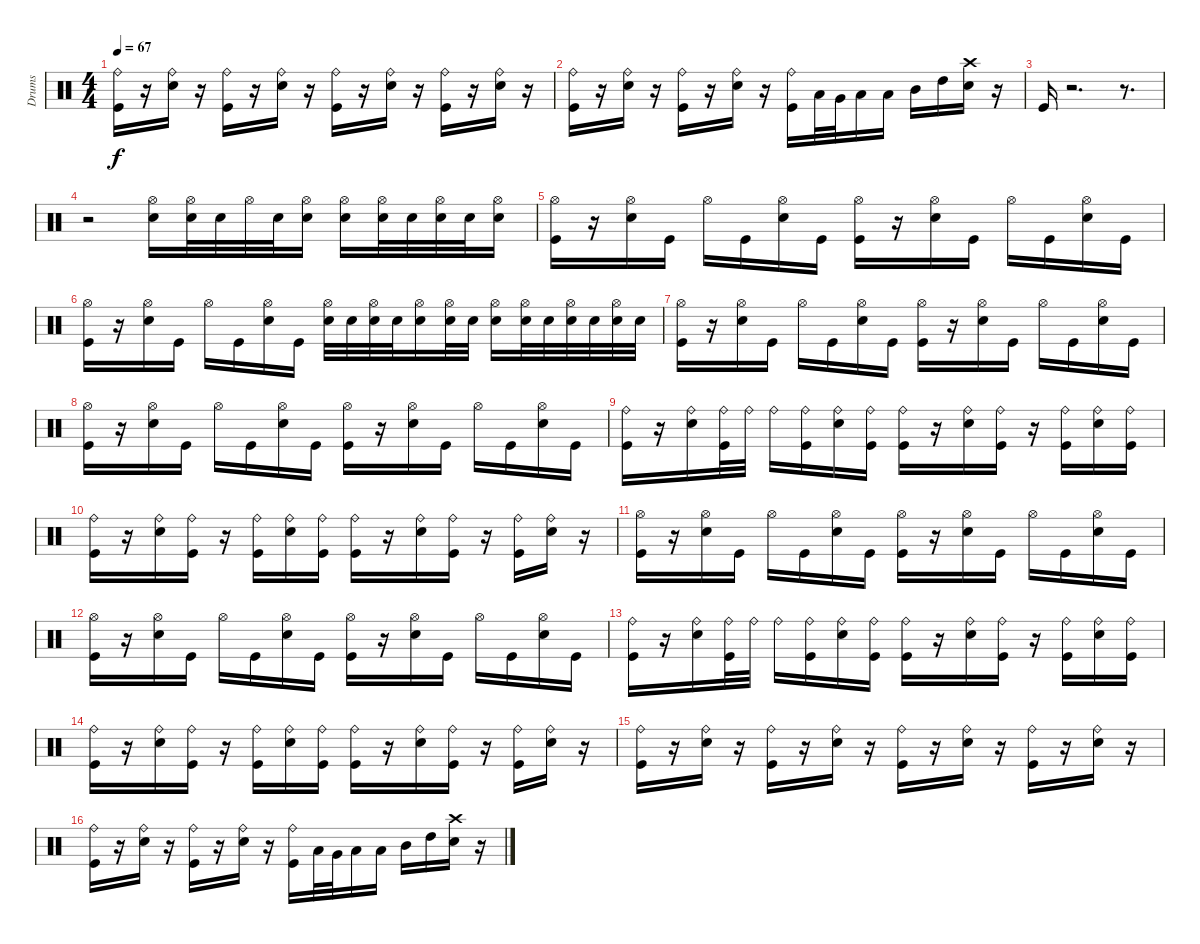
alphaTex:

\track ("Drums" "Drums") {instrument percussion}
\staff {score}
\articulation defaults
\ts (4 4)
\tempo 67
\clef neutral
\ks c
("Kick (hit)" "Ride (bell)").16{dy f} r.16 ("Ride (bell)" "Electric Snare (hit)").16 r.16 ("Kick (hit)" "Ride (bell)").16 r.16 ("Ride (bell)" "Electric Snare (hit)").16 r.16 ("Kick (hit)" "Ride (bell)").16 r.16 ("Electric Snare (hit)" "Ride (bell)").16 r.16 ("Kick (hit)" "Ride (bell)").16 r.16 ("Ride (bell)" "Electric Snare (hit)").16 r.16 |
("Kick (hit)" "Ride (bell)").16 r.16 ("Ride (bell)" "Electric Snare (hit)").16 r.16 ("Ride (bell)" "Kick (hit)").16 r.16 ("Electric Snare (hit)" "Ride (bell)").16 r.16 ("Ride (bell)" "Kick (hit)").16 "Low Floor Tom (hit)".32 "Very Low Tom (hit)".32 "Low Tom (hit)".16 "Low Tom (hit)".16 "Mid Tom (hit)".16 "High Tom (hit)".16 ("Crash high (hit)" "Metronome (bell)").16 r.16 |
"Kick (hit)".16 r.2{d} r.8{d} |
r.2 ("Hi-Hat (open)" "Metronome (bell)").16 ("Hi-Hat (open)" "Metronome (bell)").32 "Metronome (bell)".32 "Hi-Hat (open)".32 "Metronome (bell)".32 ("Hi-Hat (open)" "Metronome (bell)").16 ("Hi-Hat (open)" "Metronome (bell)").16 ("Hi-Hat (open)" "Metronome (bell)").32 "Metronome (bell)".32 ("Hi-Hat (open)" "Metronome (bell)").32 "Metronome (bell)".32 ("Hi-Hat (open)" "Metronome (bell)").16 |
("Hi-Hat (open)" "Kick (hit)").16 r.16 ("Hi-Hat (open)" "Electric Snare (hit)").16 "Kick (hit)".16 "Hi-Hat (open)".16 "Kick (hit)".16 ("Hi-Hat (open)" "Electric Snare (hit)").16 "Kick (hit)".16 ("Kick (hit)" "Hi-Hat (open)").16 r.16 ("Hi-Hat (open)" "Electric Snare (hit)").16 "Kick (hit)".16 "Hi-Hat (open)".16 "Kick (hit)".16 ("Electric Snare (hit)" "Hi-Hat (open)").16 "Kick (hit)".16 |
("Hi-Hat (open)" "Kick (hit)").16 r.16 ("Electric Snare (hit)" "Hi-Hat (open)").16 "Kick (hit)".16 "Hi-Hat (open)".16 "Kick (hit)".16 ("Electric Snare (hit)" "Hi-Hat (open)").16 "Kick (hit)".16 ("Hi-Hat (open)" "Snare (hit) 2").32 "Snare (hit) 2".32 ("Hi-Hat (open)" "Snare (hit) 2").32 "Snare (hit) 2".32 ("Snare (hit) 2" "Hi-Hat (open)").16 ("Hi-Hat (open)" "Snare (hit) 2").32 "Snare (hit) 2".32 ("Snare (hit) 2" "Hi-Hat (open)").16 ("Hi-Hat (open)" "Snare (hit) 2").32 "Snare (hit) 2".32 ("Snare (hit) 2" "Hi-Hat (open)").32 "Snare (hit) 2".32 ("Hi-Hat (open)" "Snare (hit) 2").32 "Snare (hit) 2".32 |
("Kick (hit)" "Hi-Hat (open)").16 r.16 ("Electric Snare (hit)" "Hi-Hat (open)").16 "Kick (hit)".16 "Hi-Hat (open)".16 "Kick (hit)".16 ("Hi-Hat (open)" "Electric Snare (hit)").16 "Kick (hit)".16 ("Kick (hit)" "Hi-Hat (open)").16 r.16 ("Electric Snare (hit)" "Hi-Hat (open)").16 "Kick (hit)".16 "Hi-Hat (open)".16 "Kick (hit)".16 ("Electric Snare (hit)" "Hi-Hat (open)").16 "Kick (hit)".16 |
("Kick (hit)" "Hi-Hat (open)").16 r.16 ("Hi-Hat (open)" "Electric Snare (hit)").16 "Kick (hit)".16 "Hi-Hat (open)".16 "Kick (hit)".16 ("Electric Snare (hit)" "Hi-Hat (open)").16 "Kick (hit)".16 ("Kick (hit)" "Hi-Hat (open)").16 r.16 ("Hi-Hat (open)" "Electric Snare (hit)").16 "Kick (hit)".16 "Hi-Hat (open)".16 "Kick (hit)".16 ("Hi-Hat (open)" "Electric Snare (hit)").16 "Kick (hit)".16 |
("Ride (bell)" "Kick (hit)").16 r.16 ("Ride (bell)" "Electric Snare (hit)").16 ("Ride (bell)" "Kick (hit)").32 "Ride (bell)".32 "Ride (bell)".16 ("Kick (hit)" "Ride (bell)").16 ("Electric Snare (hit)" "Ride (bell)").16 ("Kick (hit)" "Ride (bell)").16 ("Ride (bell)" "Kick (hit)").16 r.16 ("Ride (bell)" "Electric Snare (hit)").16 ("Kick (hit)" "Ride (bell)").16 r.16 ("Kick (hit)" "Ride (bell)").16 ("Electric Snare (hit)" "Ride (bell)").16 ("Kick (hit)" "Ride (bell)").16 |
("Ride (bell)" "Kick (hit)").16 r.16 ("Electric Snare (hit)" "Ride (bell)").16 ("Ride (bell)" "Kick (hit)").16 r.16 ("Ride (bell)" "Kick (hit)").16 ("Electric Snare (hit)" "Ride (bell)").16 ("Ride (bell)" "Kick (hit)").16 ("Ride (bell)" "Kick (hit)").16 r.16 ("Electric Snare (hit)" "Ride (bell)").16 ("Ride (bell)" "Kick (hit)").16 r.16 ("Ride (bell)" "Kick (hit)").16 ("Electric Snare (hit)" "Ride (bell)").16 r.16 |
("Kick (hit)" "Hi-Hat (open)").16 r.16 ("Electric Snare (hit)" "Hi-Hat (open)").16 "Kick (hit)".16 "Hi-Hat (open)".16 "Kick (hit)".16 ("Hi-Hat (open)" "Electric Snare (hit)").16 "Kick (hit)".16 ("Kick (hit)" "Hi-Hat (open)").16 r.16 ("Electric Snare (hit)" "Hi-Hat (open)").16 "Kick (hit)".16 "Hi-Hat (open)".16 "Kick (hit)".16 ("Electric Snare (hit)" "Hi-Hat (open)").16 "Kick (hit)".16 |
("Hi-Hat (open)" "Kick (hit)").16 r.16 ("Electric Snare (hit)" "Hi-Hat (open)").16 "Kick (hit)".16 "Hi-Hat (open)".16 "Kick (hit)".16 ("Electric Snare (hit)" "Hi-Hat (open)").16 "Kick (hit)".16 ("Hi-Hat (open)" "Kick (hit)").16 r.16 ("Hi-Hat (open)" "Electric Snare (hit)").16 "Kick (hit)".16 "Hi-Hat (open)".16 "Kick (hit)".16 ("Electric Snare (hit)" "Hi-Hat (open)").16 "Kick (hit)".16 |
("Ride (bell)" "Kick (hit)").16 r.16 ("Ride (bell)" "Electric Snare (hit)").16 ("Ride (bell)" "Kick (hit)").32 "Ride (bell)".32 "Ride (bell)".16 ("Kick (hit)" "Ride (bell)").16 ("Ride (bell)" "Electric Snare (hit)").16 ("Kick (hit)" "Ride (bell)").16 ("Kick (hit)" "Ride (bell)").16 r.16 ("Electric Snare (hit)" "Ride (bell)").16 ("Ride (bell)" "Kick (hit)").16 r.16 ("Ride (bell)" "Kick (hit)").16 ("Ride (bell)" "Electric Snare (hit)").16 ("Ride (bell)" "Kick (hit)").16 |
("Kick (hit)" "Ride (bell)").16 r.16 ("Ride (bell)" "Electric Snare (hit)").16 ("Ride (bell)" "Kick (hit)").16 r.16 ("Ride (bell)" "Kick (hit)").16 ("Ride (bell)" "Electric Snare (hit)").16 ("Ride (bell)" "Kick (hit)").16 ("Ride (bell)" "Kick (hit)").16 r.16 ("Electric Snare (hit)" "Ride (bell)").16 ("Kick (hit)" "Ride (bell)").16 r.16 ("Ride (bell)" "Kick (hit)").16 ("Ride (bell)" "Electric Snare (hit)").16 r.16 |
("Ride (bell)" "Kick (hit)").16 r.16 ("Ride (bell)" "Electric Snare (hit)").16 r.16 ("Kick (hit)" "Ride (bell)").16 r.16 ("Ride (bell)" "Electric Snare (hit)").16 r.16 ("Kick (hit)" "Ride (bell)").16 r.16 ("Ride (bell)" "Electric Snare (hit)").16 r.16 ("Kick (hit)" "Ride (bell)").16 r.16 ("Ride (bell)" "Electric Snare (hit)").16 r.16 |
("Ride (bell)" "Kick (hit)").16 r.16 ("Ride (bell)" "Electric Snare (hit)").16 r.16 ("Kick (hit)" "Ride (bell)").16 r.16 ("Ride (bell)" "Electric Snare (hit)").16 r.16 ("Kick (hit)" "Ride (bell)").16 "Low Floor Tom (hit)".32 "Very Low Tom (hit)".32 "Low Tom (hit)".16 "Low Tom (hit)".16 "Mid Tom (hit)".16 "High Tom (hit)".16 ("Metronome (bell)" "Crash high (hit)").16 r.16
